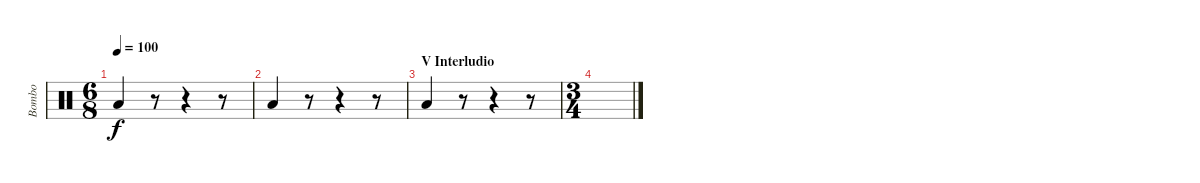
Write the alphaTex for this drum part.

\track ("Bombo" "Bombo") {instrument percussion}
\staff {score}
\articulation defaults
\ts (6 8)
\tempo 100
\clef neutral
\ks c "Low Floor Tom (hit)".4{dy f}
r.8 r.4 r.8 |
"Low Floor Tom (hit)".4 r.8 r.4 r.8 |
\section ("" "V Interludio")
"Low Floor Tom (hit)".4 r.8 r.4 r.8 |
\ts (3 4)
